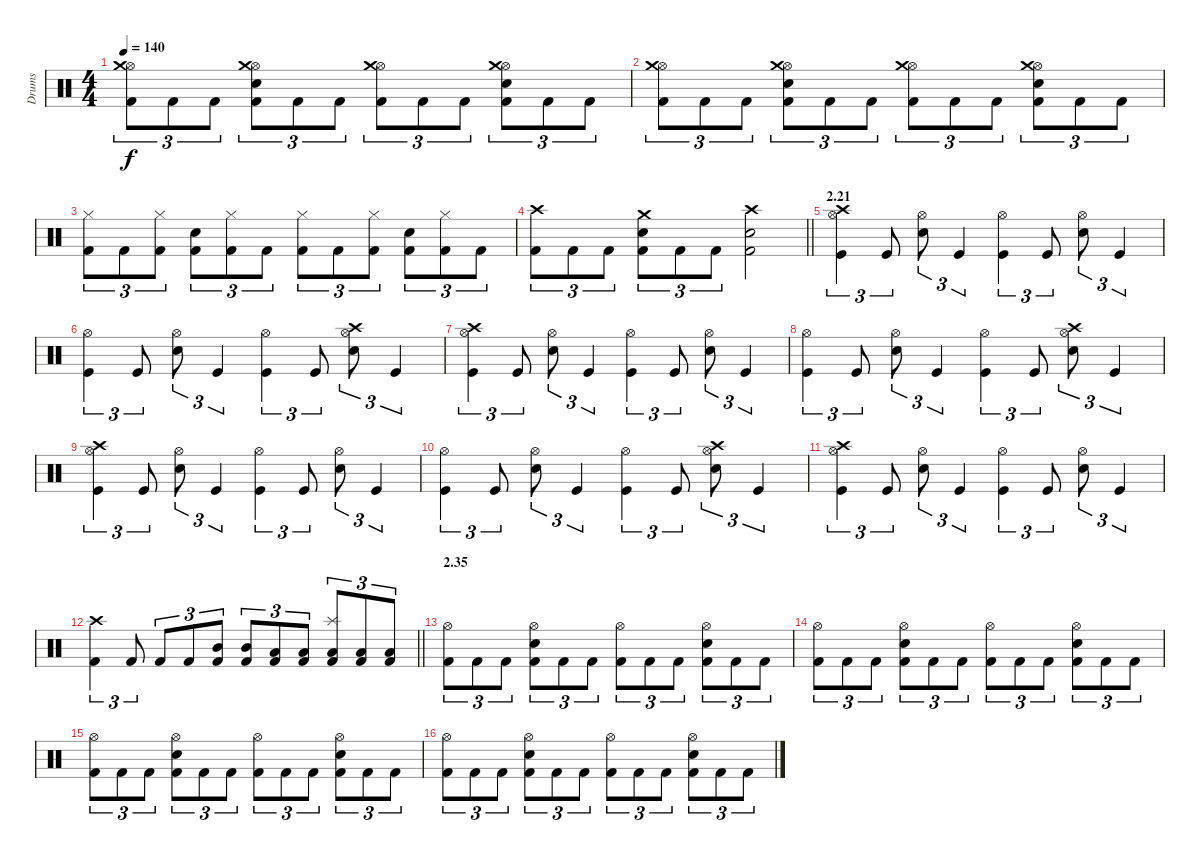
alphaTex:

\track ("Drums" "Drums") {instrument percussion}
\staff {score}
\articulation defaults
\ts (4 4)
\tempo 140
\clef neutral
\ks c
("Hi-Hat (open)" "Crash medium (hit)" "Kick (hit) 2").8{tu (3 2) dy f} "Kick (hit) 2".8{tu (3 2)} "Kick (hit) 2".8{tu (3 2)} ("Hi-Hat (open)" "Crash medium (hit)" "Electric Snare (hit)" "Kick (hit) 2").8{tu (3 2)} "Kick (hit) 2".8{tu (3 2)} "Kick (hit) 2".8{tu (3 2)} ("Hi-Hat (open)" "Crash medium (hit)" "Kick (hit) 2").8{tu (3 2)} "Kick (hit) 2".8{tu (3 2)} "Kick (hit) 2".8{tu (3 2)} ("Hi-Hat (open)" "Crash medium (hit)" "Electric Snare (hit)" "Kick (hit) 2").8{tu (3 2)} "Kick (hit) 2".8{tu (3 2)} "Kick (hit) 2".8{tu (3 2)} |
("Hi-Hat (open)" "Crash medium (hit)" "Kick (hit) 2").8{tu (3 2)} "Kick (hit) 2".8{tu (3 2)} "Kick (hit) 2".8{tu (3 2)} ("Hi-Hat (open)" "Crash medium (hit)" "Electric Snare (hit)" "Kick (hit) 2").8{tu (3 2)} "Kick (hit) 2".8{tu (3 2)} "Kick (hit) 2".8{tu (3 2)} ("Hi-Hat (open)" "Crash medium (hit)" "Kick (hit) 2").8{tu (3 2)} "Kick (hit) 2".8{tu (3 2)} "Kick (hit) 2".8{tu (3 2)} ("Hi-Hat (open)" "Crash medium (hit)" "Electric Snare (hit)" "Kick (hit) 2").8{tu (3 2)} "Kick (hit) 2".8{tu (3 2)} "Kick (hit) 2".8{tu (3 2)} |
("Hi-Hat (closed)" "Kick (hit) 2").8{tu (3 2)} "Kick (hit) 2".8{tu (3 2)} ("Hi-Hat (closed)" "Kick (hit) 2").8{tu (3 2)} ("Electric Snare (hit)" "Kick (hit) 2").8{tu (3 2)} ("Hi-Hat (closed)" "Kick (hit) 2").8{tu (3 2)} "Kick (hit) 2".8{tu (3 2)} ("Hi-Hat (closed)" "Kick (hit) 2").8{tu (3 2)} "Kick (hit) 2".8{tu (3 2)} ("Hi-Hat (closed)" "Kick (hit) 2").8{tu (3 2)} ("Electric Snare (hit)" "Kick (hit) 2").8{tu (3 2)} ("Hi-Hat (closed)" "Kick (hit) 2").8{tu (3 2)} "Kick (hit) 2".8{tu (3 2)} |
\barLineRight lightlight
("Crash high (hit)" "Kick (hit) 2").8{tu (3 2)} "Kick (hit) 2".8{tu (3 2)} "Kick (hit) 2".8{tu (3 2)} ("Crash medium (hit)" "Electric Snare (hit)" "Kick (hit) 2").8{tu (3 2)} "Kick (hit) 2".8{tu (3 2)} "Kick (hit) 2".8{tu (3 2)} ("Crash high (hit)" "Electric Snare (hit)" "Kick (hit) 2").2 |
\section ("" "2.21")
("Crash high (hit)" "Hi-Hat (open)" "Kick (hit)").4{tu (3 2)} "Kick (hit)".8{tu (3 2)} ("Hi-Hat (open)" "Electric Snare (hit)").8{tu (3 2)} "Kick (hit)".4{tu (3 2)} ("Hi-Hat (open)" "Kick (hit)").4{tu (3 2)} "Kick (hit)".8{tu (3 2)} ("Hi-Hat (open)" "Electric Snare (hit)").8{tu (3 2)} "Kick (hit)".4{tu (3 2)} |
("Hi-Hat (open)" "Kick (hit)").4{tu (3 2)} "Kick (hit)".8{tu (3 2)} ("Hi-Hat (open)" "Electric Snare (hit)").8{tu (3 2)} "Kick (hit)".4{tu (3 2)} ("Hi-Hat (open)" "Kick (hit)").4{tu (3 2)} "Kick (hit)".8{tu (3 2)} ("Crash high (hit)" "Hi-Hat (open)" "Electric Snare (hit)").8{tu (3 2)} "Kick (hit)".4{tu (3 2)} |
("Crash high (hit)" "Hi-Hat (open)" "Kick (hit)").4{tu (3 2)} "Kick (hit)".8{tu (3 2)} ("Hi-Hat (open)" "Electric Snare (hit)").8{tu (3 2)} "Kick (hit)".4{tu (3 2)} ("Hi-Hat (open)" "Kick (hit)").4{tu (3 2)} "Kick (hit)".8{tu (3 2)} ("Hi-Hat (open)" "Electric Snare (hit)").8{tu (3 2)} "Kick (hit)".4{tu (3 2)} |
("Hi-Hat (open)" "Kick (hit)").4{tu (3 2)} "Kick (hit)".8{tu (3 2)} ("Hi-Hat (open)" "Electric Snare (hit)").8{tu (3 2)} "Kick (hit)".4{tu (3 2)} ("Hi-Hat (open)" "Kick (hit)").4{tu (3 2)} "Kick (hit)".8{tu (3 2)} ("Crash high (hit)" "Hi-Hat (open)" "Electric Snare (hit)").8{tu (3 2)} "Kick (hit)".4{tu (3 2)} |
("Crash high (hit)" "Hi-Hat (open)" "Kick (hit)").4{tu (3 2)} "Kick (hit)".8{tu (3 2)} ("Hi-Hat (open)" "Electric Snare (hit)").8{tu (3 2)} "Kick (hit)".4{tu (3 2)} ("Hi-Hat (open)" "Kick (hit)").4{tu (3 2)} "Kick (hit)".8{tu (3 2)} ("Hi-Hat (open)" "Electric Snare (hit)").8{tu (3 2)} "Kick (hit)".4{tu (3 2)} |
("Hi-Hat (open)" "Kick (hit)").4{tu (3 2)} "Kick (hit)".8{tu (3 2)} ("Hi-Hat (open)" "Electric Snare (hit)").8{tu (3 2)} "Kick (hit)".4{tu (3 2)} ("Hi-Hat (open)" "Kick (hit)").4{tu (3 2)} "Kick (hit)".8{tu (3 2)} ("Crash high (hit)" "Hi-Hat (open)" "Electric Snare (hit)").8{tu (3 2)} "Kick (hit)".4{tu (3 2)} |
("Crash high (hit)" "Hi-Hat (open)" "Kick (hit)").4{tu (3 2)} "Kick (hit)".8{tu (3 2)} ("Hi-Hat (open)" "Electric Snare (hit)").8{tu (3 2)} "Kick (hit)".4{tu (3 2)} ("Hi-Hat (open)" "Kick (hit)").4{tu (3 2)} "Kick (hit)".8{tu (3 2)} ("Hi-Hat (open)" "Electric Snare (hit)").8{tu (3 2)} "Kick (hit)".4{tu (3 2)} |
\barLineRight lightlight
("Crash high (hit)" "Kick (hit) 2").4{tu (3 2)} "Kick (hit) 2".8{tu (3 2)} "Kick (hit) 2".8{tu (3 2)} "Kick (hit) 2".8{tu (3 2)} ("Mid Tom (hit)" "Kick (hit) 2").8{tu (3 2)} ("Mid Tom (hit)" "Kick (hit) 2").8{tu (3 2)} ("Low Tom (hit)" "Kick (hit) 2").8{tu (3 2)} ("Low Tom (hit)" "Kick (hit) 2").8{tu (3 2)} ("Splash (hit)" "Low Floor Tom (hit)" "Kick (hit) 2").8{tu (3 2)} ("Low Floor Tom (hit)" "Kick (hit) 2").8{tu (3 2)} ("Low Floor Tom (hit)" "Kick (hit) 2").8{tu (3 2)} |
\section ("" "2.35")
("Hi-Hat (open)" "Kick (hit) 2").8{tu (3 2)} "Kick (hit) 2".8{tu (3 2)} "Kick (hit) 2".8{tu (3 2)} ("Hi-Hat (open)" "Electric Snare (hit)" "Kick (hit) 2").8{tu (3 2)} "Kick (hit) 2".8{tu (3 2)} "Kick (hit) 2".8{tu (3 2)} ("Hi-Hat (open)" "Kick (hit) 2").8{tu (3 2)} "Kick (hit) 2".8{tu (3 2)} "Kick (hit) 2".8{tu (3 2)} ("Hi-Hat (open)" "Electric Snare (hit)" "Kick (hit) 2").8{tu (3 2)} "Kick (hit) 2".8{tu (3 2)} "Kick (hit) 2".8{tu (3 2)} |
("Hi-Hat (open)" "Kick (hit) 2").8{tu (3 2)} "Kick (hit) 2".8{tu (3 2)} "Kick (hit) 2".8{tu (3 2)} ("Hi-Hat (open)" "Electric Snare (hit)" "Kick (hit) 2").8{tu (3 2)} "Kick (hit) 2".8{tu (3 2)} "Kick (hit) 2".8{tu (3 2)} ("Hi-Hat (open)" "Kick (hit) 2").8{tu (3 2)} "Kick (hit) 2".8{tu (3 2)} "Kick (hit) 2".8{tu (3 2)} ("Hi-Hat (open)" "Electric Snare (hit)" "Kick (hit) 2").8{tu (3 2)} "Kick (hit) 2".8{tu (3 2)} "Kick (hit) 2".8{tu (3 2)} |
("Hi-Hat (open)" "Kick (hit) 2").8{tu (3 2)} "Kick (hit) 2".8{tu (3 2)} "Kick (hit) 2".8{tu (3 2)} ("Hi-Hat (open)" "Electric Snare (hit)" "Kick (hit) 2").8{tu (3 2)} "Kick (hit) 2".8{tu (3 2)} "Kick (hit) 2".8{tu (3 2)} ("Hi-Hat (open)" "Kick (hit) 2").8{tu (3 2)} "Kick (hit) 2".8{tu (3 2)} "Kick (hit) 2".8{tu (3 2)} ("Hi-Hat (open)" "Electric Snare (hit)" "Kick (hit) 2").8{tu (3 2)} "Kick (hit) 2".8{tu (3 2)} "Kick (hit) 2".8{tu (3 2)} |
("Hi-Hat (open)" "Kick (hit) 2").8{tu (3 2)} "Kick (hit) 2".8{tu (3 2)} "Kick (hit) 2".8{tu (3 2)} ("Hi-Hat (open)" "Electric Snare (hit)" "Kick (hit) 2").8{tu (3 2)} "Kick (hit) 2".8{tu (3 2)} "Kick (hit) 2".8{tu (3 2)} ("Hi-Hat (open)" "Kick (hit) 2").8{tu (3 2)} "Kick (hit) 2".8{tu (3 2)} "Kick (hit) 2".8{tu (3 2)} ("Hi-Hat (open)" "Electric Snare (hit)" "Kick (hit) 2").8{tu (3 2)} "Kick (hit) 2".8{tu (3 2)} "Kick (hit) 2".8{tu (3 2)}
